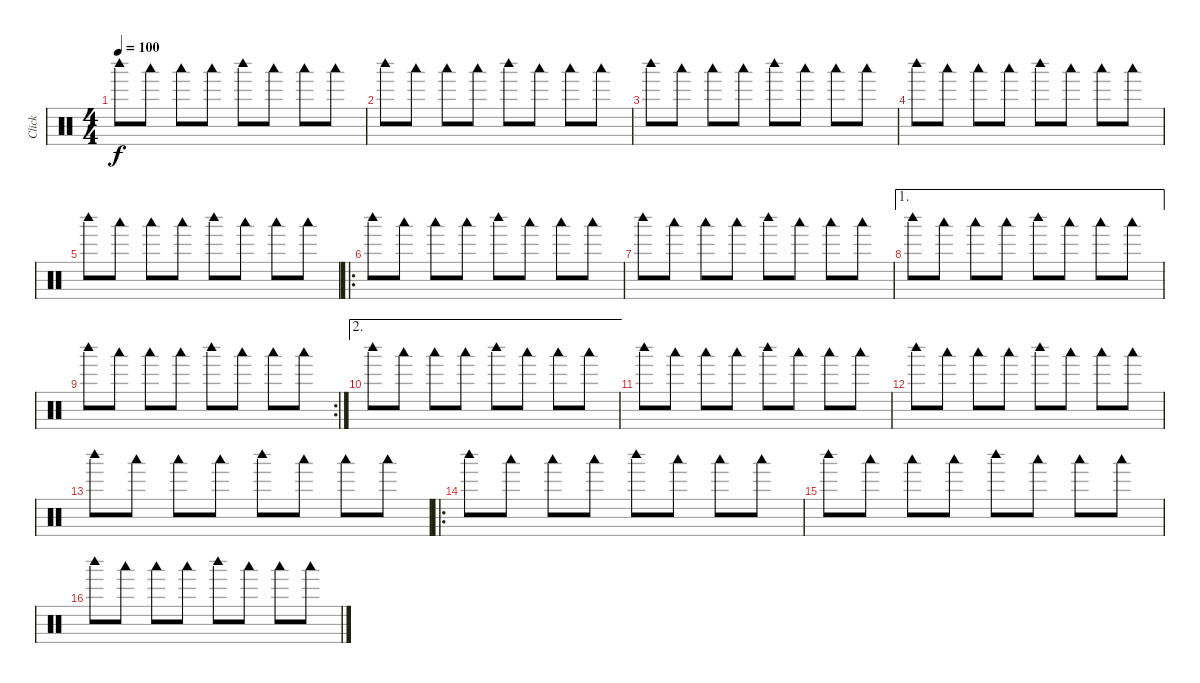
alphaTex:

\track ("Click" "Click") {mute instrument percussion}
\staff {score}
\articulation defaults
\ts (4 4)
\tempo 100
\clef neutral
\ks c "Woodblock high (hit)".8{dy f} "Woodblock low (hit)".8 "Woodblock low (hit)".8 "Woodblock low (hit)".8 "Woodblock high (hit)".8 "Woodblock low (hit)".8 "Woodblock low (hit)".8 "Woodblock low (hit)".8
|
"Woodblock high (hit)".8 "Woodblock low (hit)".8 "Woodblock low (hit)".8 "Woodblock low (hit)".8 "Woodblock high (hit)".8 "Woodblock low (hit)".8 "Woodblock low (hit)".8 "Woodblock low (hit)".8 |
"Woodblock high (hit)".8 "Woodblock low (hit)".8 "Woodblock low (hit)".8 "Woodblock low (hit)".8 "Woodblock high (hit)".8 "Woodblock low (hit)".8 "Woodblock low (hit)".8 "Woodblock low (hit)".8 |
"Woodblock high (hit)".8 "Woodblock low (hit)".8 "Woodblock low (hit)".8 "Woodblock low (hit)".8 "Woodblock high (hit)".8 "Woodblock low (hit)".8 "Woodblock low (hit)".8 "Woodblock low (hit)".8 |
"Woodblock high (hit)".8 "Woodblock low (hit)".8 "Woodblock low (hit)".8 "Woodblock low (hit)".8 "Woodblock high (hit)".8 "Woodblock low (hit)".8 "Woodblock low (hit)".8 "Woodblock low (hit)".8 |
\ro "Woodblock high (hit)".8 "Woodblock low (hit)".8 "Woodblock low (hit)".8 "Woodblock low (hit)".8 "Woodblock high (hit)".8 "Woodblock low (hit)".8 "Woodblock low (hit)".8 "Woodblock low (hit)".8
|
"Woodblock high (hit)".8 "Woodblock low (hit)".8 "Woodblock low (hit)".8 "Woodblock low (hit)".8 "Woodblock high (hit)".8 "Woodblock low (hit)".8 "Woodblock low (hit)".8 "Woodblock low (hit)".8 |
\ae 1 "Woodblock high (hit)".8 "Woodblock low (hit)".8 "Woodblock low (hit)".8 "Woodblock low (hit)".8 "Woodblock high (hit)".8 "Woodblock low (hit)".8 "Woodblock low (hit)".8 "Woodblock low (hit)".8
|
\rc 2 "Woodblock high (hit)".8 "Woodblock low (hit)".8 "Woodblock low (hit)".8 "Woodblock low (hit)".8 "Woodblock high (hit)".8 "Woodblock low (hit)".8 "Woodblock low (hit)".8 "Woodblock low (hit)".8
|
\ae 2 "Woodblock high (hit)".8 "Woodblock low (hit)".8 "Woodblock low (hit)".8 "Woodblock low (hit)".8 "Woodblock high (hit)".8 "Woodblock low (hit)".8 "Woodblock low (hit)".8 "Woodblock low (hit)".8
|
"Woodblock high (hit)".8 "Woodblock low (hit)".8 "Woodblock low (hit)".8 "Woodblock low (hit)".8 "Woodblock high (hit)".8 "Woodblock low (hit)".8 "Woodblock low (hit)".8 "Woodblock low (hit)".8 |
"Woodblock high (hit)".8 "Woodblock low (hit)".8 "Woodblock low (hit)".8 "Woodblock low (hit)".8 "Woodblock high (hit)".8 "Woodblock low (hit)".8 "Woodblock low (hit)".8 "Woodblock low (hit)".8 |
"Woodblock high (hit)".8 "Woodblock low (hit)".8 "Woodblock low (hit)".8 "Woodblock low (hit)".8 "Woodblock high (hit)".8 "Woodblock low (hit)".8 "Woodblock low (hit)".8 "Woodblock low (hit)".8 |
\ro "Woodblock high (hit)".8 "Woodblock low (hit)".8 "Woodblock low (hit)".8 "Woodblock low (hit)".8 "Woodblock high (hit)".8 "Woodblock low (hit)".8 "Woodblock low (hit)".8 "Woodblock low (hit)".8
|
"Woodblock high (hit)".8 "Woodblock low (hit)".8 "Woodblock low (hit)".8 "Woodblock low (hit)".8 "Woodblock high (hit)".8 "Woodblock low (hit)".8 "Woodblock low (hit)".8 "Woodblock low (hit)".8 |
"Woodblock high (hit)".8 "Woodblock low (hit)".8 "Woodblock low (hit)".8 "Woodblock low (hit)".8 "Woodblock high (hit)".8 "Woodblock low (hit)".8 "Woodblock low (hit)".8 "Woodblock low (hit)".8
